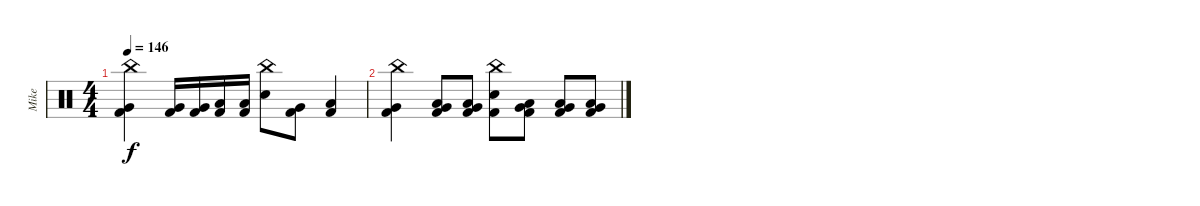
\track ("Mike" "Mike") {instrument percussion}
\staff {score}
\articulation defaults
\ts (4 4)
\tempo 146
\clef neutral
\ks c
("China (hit)" "Very Low Tom (hit)" "Kick (hit) 2").4{dy f} ("Very Low Tom (hit)" "Kick (hit) 2").16 ("Very Low Tom (hit)" "Kick (hit) 2").16 ("Low Floor Tom (hit)" "Kick (hit) 2").16 ("Low Floor Tom (hit)" "Kick (hit) 2").16 ("China (hit)" "Snare (hit) 2").8 ("Very Low Tom (hit)" "Kick (hit) 2").8 ("Low Floor Tom (hit)" "Kick (hit) 2").4 |
("China (hit)" "Very Low Tom (hit)" "Kick (hit) 2").4 ("Very Low Tom (hit)" "Low Floor Tom (hit)" "Kick (hit) 2").8 ("Very Low Tom (hit)" "Low Floor Tom (hit)" "Kick (hit) 2").8 ("China (hit)" "Snare (hit) 2" "Kick (hit) 2").8 ("Very Low Tom (hit)" "Low Floor Tom (hit)" "Kick (hit) 2").8 ("Very Low Tom (hit)" "Low Floor Tom (hit)" "Kick (hit) 2").8 ("Very Low Tom (hit)" "Low Floor Tom (hit)" "Kick (hit) 2").8
